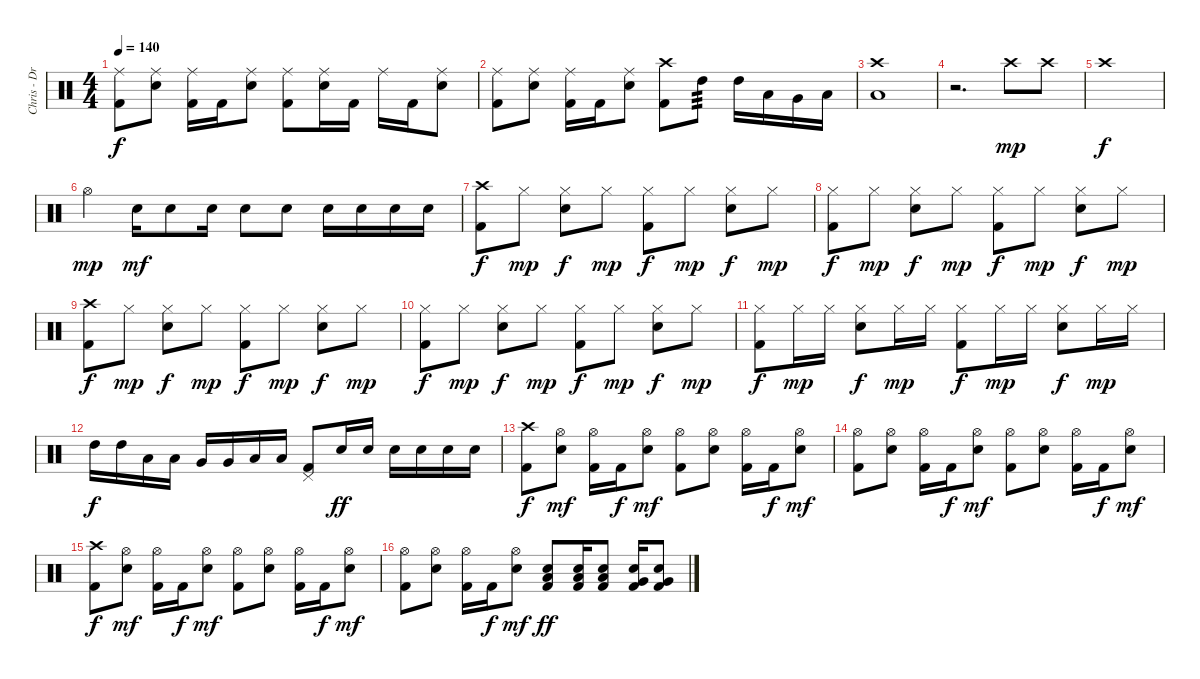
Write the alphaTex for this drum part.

\track ("Chris - Drums" "Chris - Dr") {instrument percussion}
\staff {score}
\articulation defaults
\ts (4 4)
\tempo 140
\clef neutral
\ks c
("Ride (middle)" "Kick (hit) 2").8{dy f} ("Ride (middle)" "Electric Snare (hit)").8 ("Ride (middle)" "Kick (hit) 2").16 "Kick (hit) 2".16 ("Ride (middle)" "Electric Snare (hit)").8 ("Ride (middle)" "Kick (hit) 2").8 ("Ride (middle)" "Electric Snare (hit)").16 "Kick (hit) 2".16 "Ride (middle)".16 "Kick (hit) 2".16 ("Ride (middle)" "Electric Snare (hit)").8 |
("Ride (middle)" "Kick (hit) 2").8 ("Ride (middle)" "Electric Snare (hit)").8 ("Ride (middle)" "Kick (hit) 2").16 "Kick (hit) 2".16 ("Ride (middle)" "Electric Snare (hit)").8 ("Crash high (hit)" "Kick (hit) 2").8 "High Tom (hit)".8{tp 3} "High Tom (hit)".16 "Low Tom (hit)".16 "Very Low Tom (hit)".16 "Low Floor Tom (hit)".16 |
("Crash high (hit)" "Low Floor Tom (hit)").1 |
r.2{d} "Crash high (hit)".8{dy mp} "Crash high (hit)".8 |
"Crash high (hit)".1{dy f} |
"Hi-Hat (open)".4{dy mp} "Electric Snare (hit)".16{dy mf} "Electric Snare (hit)".8 "Electric Snare (hit)".16 "Electric Snare (hit)".8 "Electric Snare (hit)".8 "Electric Snare (hit)".16 "Electric Snare (hit)".16 "Electric Snare (hit)".16 "Electric Snare (hit)".16 |
("Crash high (hit)" "Kick (hit) 2").8{dy f} "Hi-Hat (closed)".8{dy mp} ("Hi-Hat (closed)" "Electric Snare (hit)").8{dy f} "Hi-Hat (closed)".8{dy mp} ("Hi-Hat (closed)" "Kick (hit) 2").8{dy f} "Hi-Hat (closed)".8{dy mp} ("Hi-Hat (closed)" "Electric Snare (hit)").8{dy f} "Hi-Hat (closed)".8{dy mp} |
("Hi-Hat (closed)" "Kick (hit) 2").8{dy f} "Hi-Hat (closed)".8{dy mp} ("Hi-Hat (closed)" "Electric Snare (hit)").8{dy f} "Hi-Hat (closed)".8{dy mp} ("Hi-Hat (closed)" "Kick (hit) 2").8{dy f} "Hi-Hat (closed)".8{dy mp} ("Hi-Hat (closed)" "Electric Snare (hit)").8{dy f} "Hi-Hat (closed)".8{dy mp} |
("Crash high (hit)" "Kick (hit) 2").8{dy f} "Hi-Hat (closed)".8{dy mp} ("Hi-Hat (closed)" "Electric Snare (hit)").8{dy f} "Hi-Hat (closed)".8{dy mp} ("Hi-Hat (closed)" "Kick (hit) 2").8{dy f} "Hi-Hat (closed)".8{dy mp} ("Hi-Hat (closed)" "Electric Snare (hit)").8{dy f} "Hi-Hat (closed)".8{dy mp} |
("Hi-Hat (closed)" "Kick (hit) 2").8{dy f} "Hi-Hat (closed)".8{dy mp} ("Hi-Hat (closed)" "Electric Snare (hit)").8{dy f} "Hi-Hat (closed)".8{dy mp} ("Hi-Hat (closed)" "Kick (hit) 2").8{dy f} "Hi-Hat (closed)".8{dy mp} ("Hi-Hat (closed)" "Electric Snare (hit)").8{dy f} "Hi-Hat (closed)".8{dy mp} |
("Hi-Hat (closed)" "Kick (hit) 2").8{dy f} "Hi-Hat (closed)".16{dy mp} "Hi-Hat (closed)".16 ("Hi-Hat (closed)" "Electric Snare (hit)").8{dy f} "Hi-Hat (closed)".16{dy mp} "Hi-Hat (closed)".16 ("Hi-Hat (closed)" "Kick (hit) 2").8{dy f} "Hi-Hat (closed)".16{dy mp} "Hi-Hat (closed)".16 ("Hi-Hat (closed)" "Electric Snare (hit)").8{dy f} "Hi-Hat (closed)".16{dy mp} "Hi-Hat (closed)".16 |
"High Tom (hit)".16{dy f} "High Tom (hit)".16 "Low Tom (hit)".16 "Low Tom (hit)".16 "Very Low Tom (hit)".16 "Very Low Tom (hit)".16 "Low Floor Tom (hit)".16 "Low Floor Tom (hit)".16 ("Pedal Hi-Hat (hit)" "Kick (hit) 2").8 "Electric Snare (hit)".16{dy ff} "Electric Snare (hit)".16 "Electric Snare (hit)".16 "Electric Snare (hit)".16 "Electric Snare (hit)".16 "Electric Snare (hit)".16 |
("Crash high (hit)" "Kick (hit) 2").8{dy f} ("Hi-Hat (open)" "Electric Snare (hit)").8{dy mf} ("Hi-Hat (open)" "Kick (hit) 2").16 "Kick (hit) 2".16{dy f} ("Hi-Hat (open)" "Electric Snare (hit)").8{dy mf} ("Hi-Hat (open)" "Kick (hit) 2").8 ("Hi-Hat (open)" "Electric Snare (hit)").8 ("Hi-Hat (open)" "Kick (hit) 2").16 "Kick (hit) 2".16{dy f} ("Hi-Hat (open)" "Electric Snare (hit)").8{dy mf} |
("Hi-Hat (open)" "Kick (hit) 2").8 ("Hi-Hat (open)" "Electric Snare (hit)").8 ("Hi-Hat (open)" "Kick (hit) 2").16 "Kick (hit) 2".16{dy f} ("Hi-Hat (open)" "Electric Snare (hit)").8{dy mf} ("Hi-Hat (open)" "Kick (hit) 2").8 ("Hi-Hat (open)" "Electric Snare (hit)").8 ("Hi-Hat (open)" "Kick (hit) 2").16 "Kick (hit) 2".16{dy f} ("Hi-Hat (open)" "Electric Snare (hit)").8{dy mf} |
("Crash high (hit)" "Kick (hit) 2").8{dy f} ("Hi-Hat (open)" "Electric Snare (hit)").8{dy mf} ("Hi-Hat (open)" "Kick (hit) 2").16 "Kick (hit) 2".16{dy f} ("Hi-Hat (open)" "Electric Snare (hit)").8{dy mf} ("Hi-Hat (open)" "Kick (hit) 2").8 ("Hi-Hat (open)" "Electric Snare (hit)").8 ("Hi-Hat (open)" "Kick (hit) 2").16 "Kick (hit) 2".16{dy f} ("Hi-Hat (open)" "Electric Snare (hit)").8{dy mf} |
("Hi-Hat (open)" "Kick (hit) 2").8 ("Hi-Hat (open)" "Electric Snare (hit)").8 ("Hi-Hat (open)" "Kick (hit) 2").16 "Kick (hit) 2".16{dy f} ("Hi-Hat (open)" "Electric Snare (hit)").8{dy mf} ("Low Tom (hit)" "Electric Snare (hit)" "Kick (hit) 2").8{dy ff} ("Low Tom (hit)" "Electric Snare (hit)" "Kick (hit) 2").16 ("Low Tom (hit)" "Electric Snare (hit)" "Kick (hit) 2").8 ("Very Low Tom (hit)" "Electric Snare (hit)" "Kick (hit) 2").16 ("Very Low Tom (hit)" "Electric Snare (hit)" "Kick (hit) 2").8
